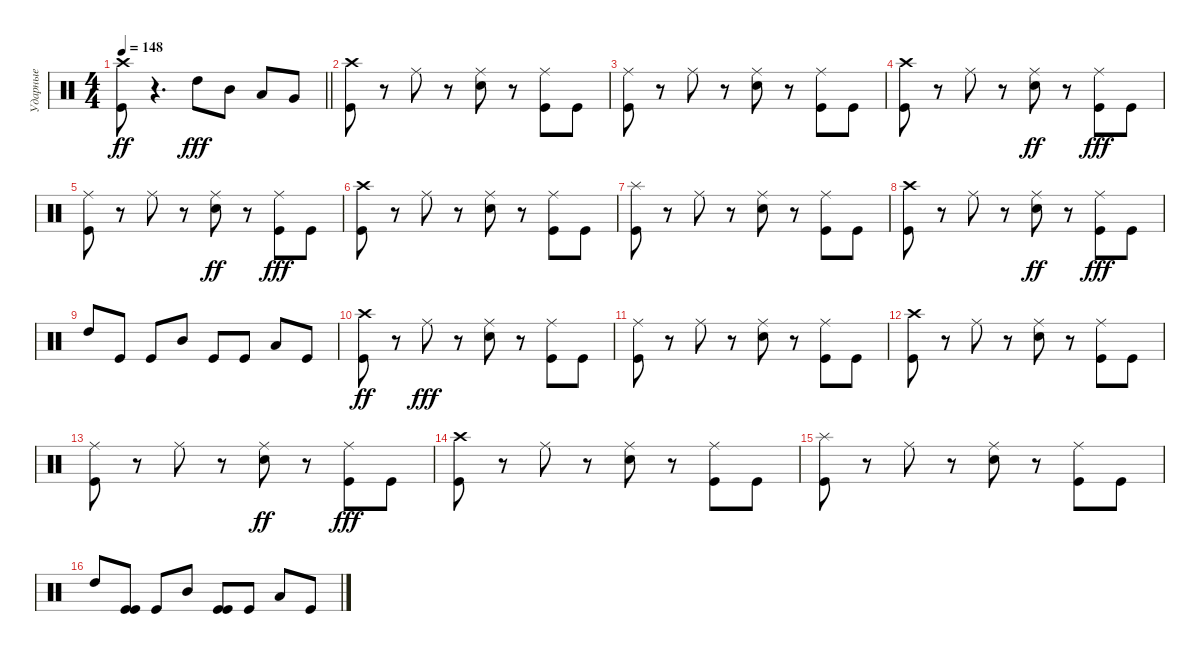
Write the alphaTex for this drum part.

\track ("Ударные" "Ударные") {instrument percussion}
\staff {score}
\articulation defaults
\ts (4 4)
\tempo 148
\clef neutral
\barLineRight lightlight
\ks c
("Kick (hit)" "Crash high (hit)").8{dy ff} r.4{d} "High Tom (hit)".8{dy fff} "Mid Tom (hit)".8 "Low Tom (hit)".8 "Very Low Tom (hit)".8 |
("Crash high (hit)" "Kick (hit)").8 r.8 "Ride (middle)".8 r.8 ("Snare (hit) 2" "Ride (middle)").8 r.8 ("Kick (hit)" "Ride (middle)").8 "Kick (hit)".8 |
("Ride (middle)" "Kick (hit)").8 r.8 "Ride (middle)".8 r.8 ("Snare (hit) 2" "Ride (middle)").8 r.8 ("Kick (hit)" "Ride (middle)").8 "Kick (hit)".8 |
("Crash high (hit)" "Kick (hit)").8 r.8 "Ride (middle)".8 r.8 ("Ride (middle)" "Snare (hit) 2").8{dy ff} r.8 ("Kick (hit)" "Ride (middle)").8{dy fff} "Kick (hit)".8 |
("Ride (middle)" "Kick (hit)").8 r.8 "Ride (middle)".8 r.8 ("Ride (middle)" "Snare (hit) 2").8{dy ff} r.8 ("Kick (hit)" "Ride (middle)").8{dy fff} "Kick (hit)".8 |
("Crash high (hit)" "Kick (hit)").8 r.8 "Ride (middle)".8 r.8 ("Snare (hit) 2" "Ride (middle)").8 r.8 ("Kick (hit)" "Ride (middle)").8 "Kick (hit)".8 |
("Splash (hit)" "Kick (hit)").8 r.8 "Ride (middle)".8 r.8 ("Snare (hit) 2" "Ride (middle)").8 r.8 ("Kick (hit)" "Ride (middle)").8 "Kick (hit)".8 |
("Crash high (hit)" "Kick (hit)").8 r.8 "Ride (middle)".8 r.8 ("Ride (middle)" "Snare (hit) 2").8{dy ff} r.8 ("Kick (hit)" "Ride (middle)").8{dy fff} "Kick (hit)".8 |
"High Tom (hit)".8 "Kick (hit)".8 "Kick (hit)".8 "Mid Tom (hit)".8 "Kick (hit)".8 "Kick (hit)".8 "Low Tom (hit)".8 "Kick (hit)".8 |
("Kick (hit)" "Crash high (hit)").8{dy ff} r.8 "Ride (middle)".8{dy fff} r.8 ("Snare (hit) 2" "Ride (middle)").8 r.8 ("Ride (middle)" "Kick (hit)").8 "Kick (hit)".8 |
("Kick (hit)" "Ride (middle)").8 r.8 "Ride (middle)".8 r.8 ("Snare (hit) 2" "Ride (middle)").8 r.8 ("Ride (middle)" "Kick (hit)").8 "Kick (hit)".8 |
("Crash high (hit)" "Kick (hit)").8 r.8 "Ride (middle)".8 r.8 ("Snare (hit) 2" "Ride (middle)").8 r.8 ("Ride (middle)" "Kick (hit)").8 "Kick (hit)".8 |
("Ride (middle)" "Kick (hit)").8 r.8 "Ride (middle)".8 r.8 ("Ride (middle)" "Snare (hit) 2").8{dy ff} r.8 ("Ride (middle)" "Kick (hit)").8{dy fff} "Kick (hit)".8 |
("Crash high (hit)" "Kick (hit)").8 r.8 "Ride (middle)".8 r.8 ("Snare (hit) 2" "Ride (middle)").8 r.8 ("Kick (hit)" "Ride (middle)").8 "Kick (hit)".8 |
("Splash (hit)" "Kick (hit)").8 r.8 "Ride (middle)".8 r.8 ("Snare (hit) 2" "Ride (middle)").8 r.8 ("Ride (middle)" "Kick (hit)").8 "Kick (hit)".8 |
"High Tom (hit)".8 ("Kick (hit)" "Kick (hit)").8 "Kick (hit)".8 "Mid Tom (hit)".8 ("Kick (hit)" "Kick (hit)").8 "Kick (hit)".8 "Low Tom (hit)".8 "Kick (hit)".8
